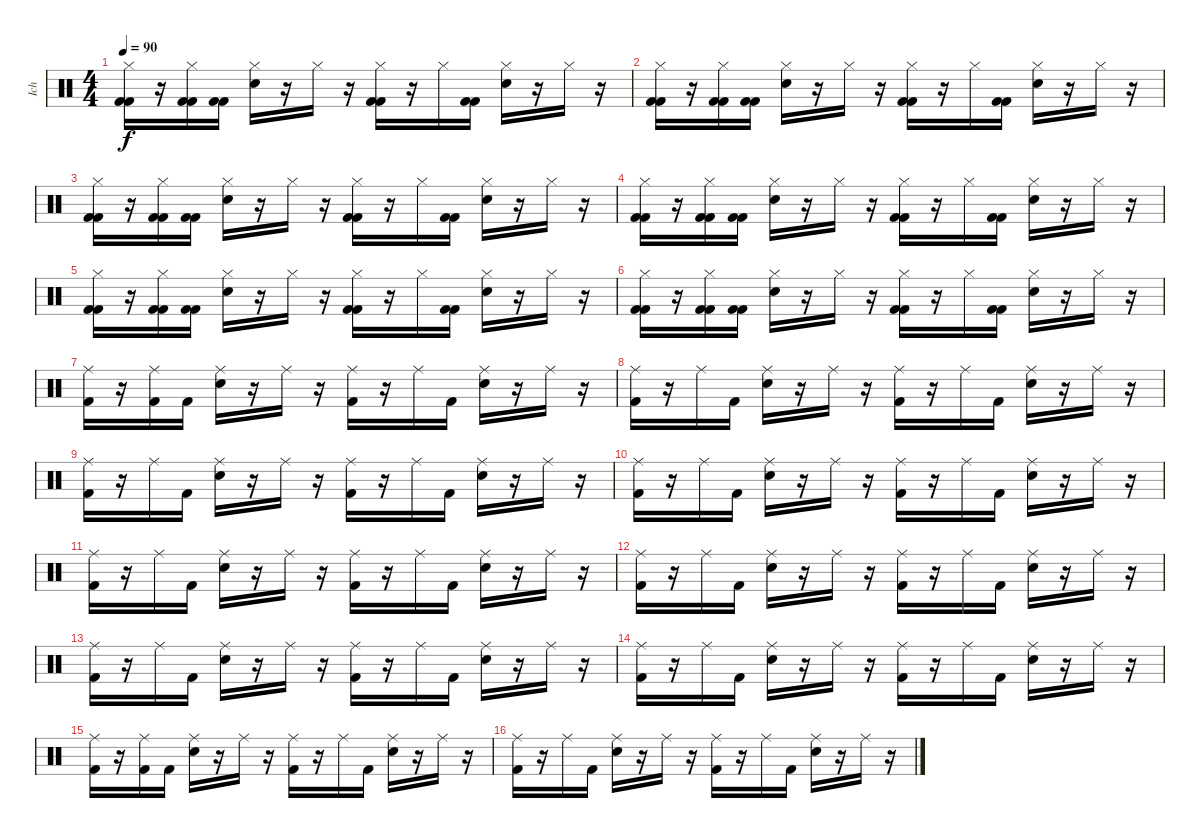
\track ("Ich" "Ich") {instrument percussion}
\staff {score}
\articulation defaults
\ts (4 4)
\tempo 90
\clef neutral
\ks c
("Hi-Hat (closed)" "Kick (hit) 2" "Kick (hit) 2").16{dy f} r.16 ("Hi-Hat (closed)" "Kick (hit) 2" "Kick (hit) 2").16 ("Kick (hit) 2" "Kick (hit) 2").16 ("Hi-Hat (closed)" "Snare (hit) 2").16 r.16 "Hi-Hat (closed)".16 r.16 ("Hi-Hat (closed)" "Kick (hit) 2" "Kick (hit) 2").16 r.16 "Hi-Hat (closed)".16 ("Kick (hit) 2" "Kick (hit) 2").16 ("Hi-Hat (closed)" "Snare (hit) 2").16 r.16 "Hi-Hat (closed)".16 r.16 |
("Hi-Hat (closed)" "Kick (hit) 2" "Kick (hit) 2").16 r.16 ("Hi-Hat (closed)" "Kick (hit) 2" "Kick (hit) 2").16 ("Kick (hit) 2" "Kick (hit) 2").16 ("Hi-Hat (closed)" "Snare (hit) 2").16 r.16 "Hi-Hat (closed)".16 r.16 ("Hi-Hat (closed)" "Kick (hit) 2" "Kick (hit) 2").16 r.16 "Hi-Hat (closed)".16 ("Kick (hit) 2" "Kick (hit) 2").16 ("Hi-Hat (closed)" "Snare (hit) 2").16 r.16 "Hi-Hat (closed)".16 r.16 |
("Hi-Hat (closed)" "Kick (hit) 2" "Kick (hit) 2").16 r.16 ("Hi-Hat (closed)" "Kick (hit) 2" "Kick (hit) 2").16 ("Kick (hit) 2" "Kick (hit) 2").16 ("Hi-Hat (closed)" "Snare (hit) 2").16 r.16 "Hi-Hat (closed)".16 r.16 ("Hi-Hat (closed)" "Kick (hit) 2" "Kick (hit) 2").16 r.16 "Hi-Hat (closed)".16 ("Kick (hit) 2" "Kick (hit) 2").16 ("Hi-Hat (closed)" "Snare (hit) 2").16 r.16 "Hi-Hat (closed)".16 r.16 |
("Hi-Hat (closed)" "Kick (hit) 2" "Kick (hit) 2").16 r.16 ("Hi-Hat (closed)" "Kick (hit) 2" "Kick (hit) 2").16 ("Kick (hit) 2" "Kick (hit) 2").16 ("Hi-Hat (closed)" "Snare (hit) 2").16 r.16 "Hi-Hat (closed)".16 r.16 ("Hi-Hat (closed)" "Kick (hit) 2" "Kick (hit) 2").16 r.16 "Hi-Hat (closed)".16 ("Kick (hit) 2" "Kick (hit) 2").16 ("Hi-Hat (closed)" "Snare (hit) 2").16 r.16 "Hi-Hat (closed)".16 r.16 |
("Hi-Hat (closed)" "Kick (hit) 2" "Kick (hit) 2").16 r.16 ("Hi-Hat (closed)" "Kick (hit) 2" "Kick (hit) 2").16 ("Kick (hit) 2" "Kick (hit) 2").16 ("Hi-Hat (closed)" "Snare (hit) 2").16 r.16 "Hi-Hat (closed)".16 r.16 ("Hi-Hat (closed)" "Kick (hit) 2" "Kick (hit) 2").16 r.16 "Hi-Hat (closed)".16 ("Kick (hit) 2" "Kick (hit) 2").16 ("Hi-Hat (closed)" "Snare (hit) 2").16 r.16 "Hi-Hat (closed)".16 r.16 |
("Hi-Hat (closed)" "Kick (hit) 2" "Kick (hit) 2").16 r.16 ("Hi-Hat (closed)" "Kick (hit) 2" "Kick (hit) 2").16 ("Kick (hit) 2" "Kick (hit) 2").16 ("Hi-Hat (closed)" "Snare (hit) 2").16 r.16 "Hi-Hat (closed)".16 r.16 ("Hi-Hat (closed)" "Kick (hit) 2" "Kick (hit) 2").16 r.16 "Hi-Hat (closed)".16 ("Kick (hit) 2" "Kick (hit) 2").16 ("Hi-Hat (closed)" "Snare (hit) 2").16 r.16 "Hi-Hat (closed)".16 r.16 |
("Ride (middle)" "Kick (hit) 2").16 r.16 ("Ride (middle)" "Kick (hit) 2").16 "Kick (hit) 2".16 ("Ride (middle)" "Snare (hit) 2").16 r.16 "Ride (middle)".16 r.16 ("Ride (middle)" "Kick (hit) 2").16 r.16 "Ride (middle)".16 "Kick (hit) 2".16 ("Ride (middle)" "Snare (hit) 2").16 r.16 "Ride (middle)".16 r.16 |
("Ride (middle)" "Kick (hit) 2").16 r.16 "Ride (middle)".16 "Kick (hit) 2".16 ("Ride (middle)" "Snare (hit) 2").16 r.16 "Ride (middle)".16 r.16 ("Ride (middle)" "Kick (hit) 2").16 r.16 "Ride (middle)".16 "Kick (hit) 2".16 ("Ride (middle)" "Snare (hit) 2").16 r.16 "Ride (middle)".16 r.16 |
("Ride (middle)" "Kick (hit) 2").16 r.16 "Ride (middle)".16 "Kick (hit) 2".16 ("Ride (middle)" "Snare (hit) 2").16 r.16 "Ride (middle)".16 r.16 ("Ride (middle)" "Kick (hit) 2").16 r.16 "Ride (middle)".16 "Kick (hit) 2".16 ("Ride (middle)" "Snare (hit) 2").16 r.16 "Ride (middle)".16 r.16 |
("Ride (middle)" "Kick (hit) 2").16 r.16 "Ride (middle)".16 "Kick (hit) 2".16 ("Ride (middle)" "Snare (hit) 2").16 r.16 "Ride (middle)".16 r.16 ("Ride (middle)" "Kick (hit) 2").16 r.16 "Ride (middle)".16 "Kick (hit) 2".16 ("Ride (middle)" "Snare (hit) 2").16 r.16 "Ride (middle)".16 r.16 |
("Ride (middle)" "Kick (hit) 2").16 r.16 "Ride (middle)".16 "Kick (hit) 2".16 ("Ride (middle)" "Snare (hit) 2").16 r.16 "Ride (middle)".16 r.16 ("Ride (middle)" "Kick (hit) 2").16 r.16 "Ride (middle)".16 "Kick (hit) 2".16 ("Ride (middle)" "Snare (hit) 2").16 r.16 "Ride (middle)".16 r.16 |
("Ride (middle)" "Kick (hit) 2").16 r.16 "Ride (middle)".16 "Kick (hit) 2".16 ("Ride (middle)" "Snare (hit) 2").16 r.16 "Ride (middle)".16 r.16 ("Ride (middle)" "Kick (hit) 2").16 r.16 "Ride (middle)".16 "Kick (hit) 2".16 ("Ride (middle)" "Snare (hit) 2").16 r.16 "Ride (middle)".16 r.16 |
("Ride (middle)" "Kick (hit) 2").16 r.16 "Ride (middle)".16 "Kick (hit) 2".16 ("Ride (middle)" "Snare (hit) 2").16 r.16 "Ride (middle)".16 r.16 ("Ride (middle)" "Kick (hit) 2").16 r.16 "Ride (middle)".16 "Kick (hit) 2".16 ("Ride (middle)" "Snare (hit) 2").16 r.16 "Ride (middle)".16 r.16 |
("Ride (middle)" "Kick (hit) 2").16 r.16 "Ride (middle)".16 "Kick (hit) 2".16 ("Ride (middle)" "Snare (hit) 2").16 r.16 "Ride (middle)".16 r.16 ("Ride (middle)" "Kick (hit) 2").16 r.16 "Ride (middle)".16 "Kick (hit) 2".16 ("Ride (middle)" "Snare (hit) 2").16 r.16 "Ride (middle)".16 r.16 |
("Ride (middle)" "Kick (hit) 2").16 r.16 ("Ride (middle)" "Kick (hit) 2").16 "Kick (hit) 2".16 ("Ride (middle)" "Snare (hit) 2").16 r.16 "Ride (middle)".16 r.16 ("Ride (middle)" "Kick (hit) 2").16 r.16 "Ride (middle)".16 "Kick (hit) 2".16 ("Ride (middle)" "Snare (hit) 2").16 r.16 "Ride (middle)".16 r.16 |
("Ride (middle)" "Kick (hit) 2").16 r.16 "Ride (middle)".16 "Kick (hit) 2".16 ("Ride (middle)" "Snare (hit) 2").16 r.16 "Ride (middle)".16 r.16 ("Ride (middle)" "Kick (hit) 2").16 r.16 "Ride (middle)".16 "Kick (hit) 2".16 ("Ride (middle)" "Snare (hit) 2").16 r.16 "Ride (middle)".16 r.16
